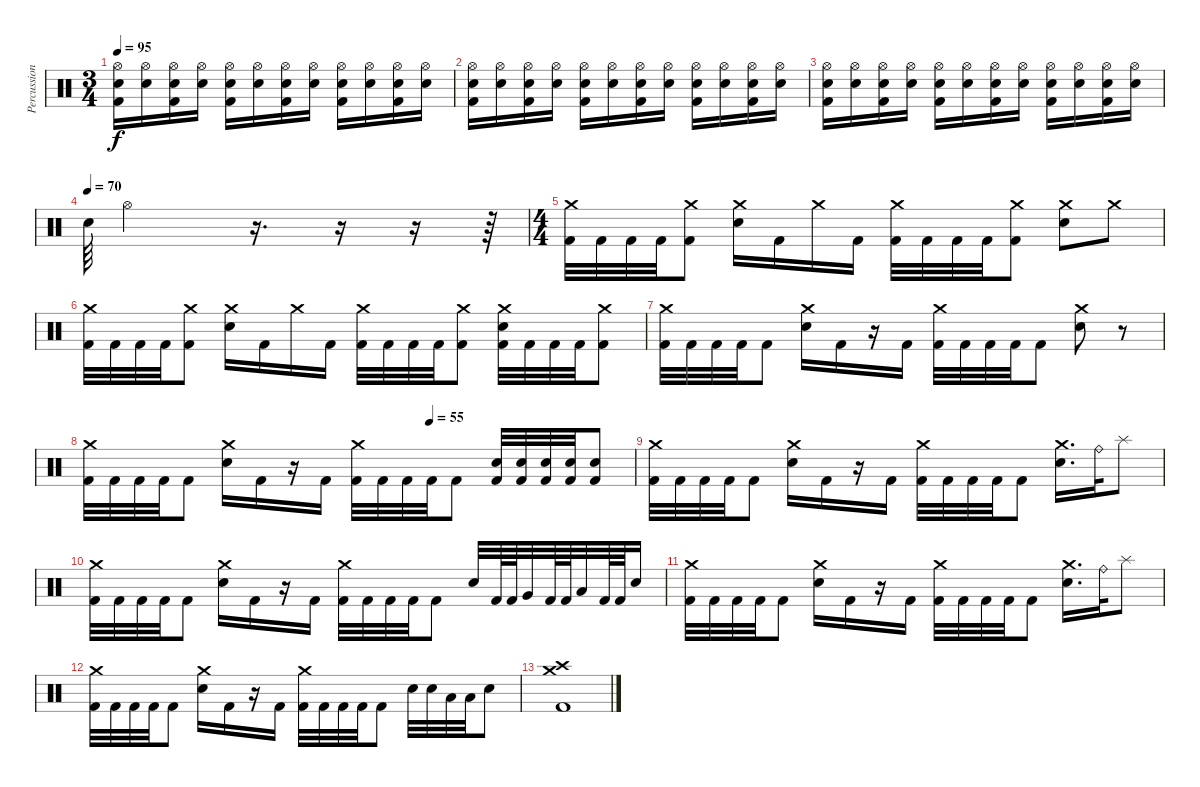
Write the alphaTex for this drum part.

\track ("Percussion" "Percussion") {instrument percussion}
\staff {score}
\articulation defaults
\ts (3 4)
\tempo 95
\clef neutral
\ks c
("Hi-Hat (open)" "Electric Snare (hit)" "Kick (hit) 2").16{dy f} ("Hi-Hat (open)" "Electric Snare (hit)").16 ("Hi-Hat (open)" "Electric Snare (hit)" "Kick (hit) 2").16 ("Hi-Hat (open)" "Electric Snare (hit)").16 ("Hi-Hat (open)" "Electric Snare (hit)" "Kick (hit) 2").16 ("Hi-Hat (open)" "Electric Snare (hit)").16 ("Hi-Hat (open)" "Electric Snare (hit)" "Kick (hit) 2").16 ("Hi-Hat (open)" "Electric Snare (hit)").16 ("Hi-Hat (open)" "Electric Snare (hit)" "Kick (hit) 2").16 ("Hi-Hat (open)" "Electric Snare (hit)").16 ("Hi-Hat (open)" "Electric Snare (hit)" "Kick (hit) 2").16 ("Hi-Hat (open)" "Electric Snare (hit)").16 |
("Hi-Hat (open)" "Electric Snare (hit)" "Kick (hit) 2").16 ("Hi-Hat (open)" "Electric Snare (hit)").16 ("Hi-Hat (open)" "Electric Snare (hit)" "Kick (hit) 2").16 ("Hi-Hat (open)" "Electric Snare (hit)").16 ("Hi-Hat (open)" "Electric Snare (hit)" "Kick (hit) 2").16 ("Hi-Hat (open)" "Electric Snare (hit)").16 ("Hi-Hat (open)" "Electric Snare (hit)" "Kick (hit) 2").16 ("Hi-Hat (open)" "Electric Snare (hit)").16 ("Hi-Hat (open)" "Electric Snare (hit)" "Kick (hit) 2").16 ("Hi-Hat (open)" "Electric Snare (hit)").16 ("Hi-Hat (open)" "Electric Snare (hit)" "Kick (hit) 2").16 ("Hi-Hat (open)" "Electric Snare (hit)").16 |
("Hi-Hat (open)" "Electric Snare (hit)" "Kick (hit) 2").16 ("Hi-Hat (open)" "Electric Snare (hit)").16 ("Hi-Hat (open)" "Electric Snare (hit)" "Kick (hit) 2").16 ("Hi-Hat (open)" "Electric Snare (hit)").16 ("Hi-Hat (open)" "Electric Snare (hit)" "Kick (hit) 2").16 ("Hi-Hat (open)" "Electric Snare (hit)").16 ("Hi-Hat (open)" "Electric Snare (hit)" "Kick (hit) 2").16 ("Hi-Hat (open)" "Electric Snare (hit)").16 ("Hi-Hat (open)" "Electric Snare (hit)" "Kick (hit) 2").16 ("Hi-Hat (open)" "Electric Snare (hit)").16 ("Hi-Hat (open)" "Electric Snare (hit)" "Kick (hit) 2").16 ("Hi-Hat (open)" "Electric Snare (hit)").16 |
\tempo (70)
"Electric Snare (hit)".64 "Hi-Hat (open)".2 r.16{d} r.16 r.16 r.64 |
\ts (4 4)
("Crash medium (hit)" "Kick (hit) 2").32 "Kick (hit) 2".32 "Kick (hit) 2".32 "Kick (hit) 2".32 ("Crash medium (hit)" "Kick (hit) 2").8 ("Crash medium (hit)" "Electric Snare (hit)").16 "Kick (hit) 2".16 "Crash medium (hit)".16 "Kick (hit) 2".16 ("Crash medium (hit)" "Kick (hit) 2").32 "Kick (hit) 2".32 "Kick (hit) 2".32 "Kick (hit) 2".32 ("Crash medium (hit)" "Kick (hit) 2").8 ("Crash medium (hit)" "Electric Snare (hit)").8 "Crash medium (hit)".8 |
("Crash medium (hit)" "Kick (hit) 2").32 "Kick (hit) 2".32 "Kick (hit) 2".32 "Kick (hit) 2".32 ("Crash medium (hit)" "Kick (hit) 2").8 ("Crash medium (hit)" "Electric Snare (hit)").16 "Kick (hit) 2".16 "Crash medium (hit)".16 "Kick (hit) 2".16 ("Crash medium (hit)" "Kick (hit) 2").32 "Kick (hit) 2".32 "Kick (hit) 2".32 "Kick (hit) 2".32 ("Crash medium (hit)" "Kick (hit) 2").8 ("Crash medium (hit)" "Electric Snare (hit)" "Kick (hit) 2").32 "Kick (hit) 2".32 "Kick (hit) 2".32 "Kick (hit) 2".32 ("Crash medium (hit)" "Kick (hit) 2").8 |
("Crash medium (hit)" "Kick (hit) 2").32 "Kick (hit) 2".32 "Kick (hit) 2".32 "Kick (hit) 2".32 "Kick (hit) 2".8 ("Crash medium (hit)" "Electric Snare (hit)").16 "Kick (hit) 2".16 r.16 "Kick (hit) 2".16 ("Crash medium (hit)" "Kick (hit) 2").32 "Kick (hit) 2".32 "Kick (hit) 2".32 "Kick (hit) 2".32 "Kick (hit) 2".8 ("Crash medium (hit)" "Electric Snare (hit)").8 r.8 |
\tempo (55 0.625)
("Crash medium (hit)" "Kick (hit) 2").32 "Kick (hit) 2".32 "Kick (hit) 2".32 "Kick (hit) 2".32 "Kick (hit) 2".8 ("Crash medium (hit)" "Electric Snare (hit)").16 "Kick (hit) 2".16 r.16 "Kick (hit) 2".16 ("Crash medium (hit)" "Kick (hit) 2").32 "Kick (hit) 2".32 "Kick (hit) 2".32 "Kick (hit) 2".32 "Kick (hit) 2".8 ("Electric Snare (hit)" "Kick (hit) 2").32 ("Electric Snare (hit)" "Kick (hit) 2").32 ("Electric Snare (hit)" "Kick (hit) 2").32 ("Electric Snare (hit)" "Kick (hit) 2").32 ("Electric Snare (hit)" "Kick (hit) 2").8 |
("Crash medium (hit)" "Kick (hit) 2").32 "Kick (hit) 2".32 "Kick (hit) 2".32 "Kick (hit) 2".32 "Kick (hit) 2".8 ("Crash medium (hit)" "Electric Snare (hit)").16 "Kick (hit) 2".16 r.16 "Kick (hit) 2".16 ("Crash medium (hit)" "Kick (hit) 2").32 "Kick (hit) 2".32 "Kick (hit) 2".32 "Kick (hit) 2".32 "Kick (hit) 2".8 ("Crash medium (hit)" "Electric Snare (hit)").16{d} "Ride (bell)".32 "Splash (hit)".8 |
("Crash medium (hit)" "Kick (hit) 2").32 "Kick (hit) 2".32 "Kick (hit) 2".32 "Kick (hit) 2".32 "Kick (hit) 2".8 ("Crash medium (hit)" "Electric Snare (hit)").16 "Kick (hit) 2".16 r.16 "Kick (hit) 2".16 ("Crash medium (hit)" "Kick (hit) 2").32 "Kick (hit) 2".32 "Kick (hit) 2".32 "Kick (hit) 2".32 "Kick (hit) 2".8 "Electric Snare (hit)".32 "Kick (hit) 2".64 "Kick (hit) 2".64 "Very Low Tom (hit)".32 "Kick (hit) 2".64 "Kick (hit) 2".64 "Low Floor Tom (hit)".32 "Kick (hit) 2".64 "Kick (hit) 2".64 "Electric Snare (hit)".16 |
("Crash medium (hit)" "Kick (hit) 2").32 "Kick (hit) 2".32 "Kick (hit) 2".32 "Kick (hit) 2".32 "Kick (hit) 2".8 ("Crash medium (hit)" "Electric Snare (hit)").16 "Kick (hit) 2".16 r.16 "Kick (hit) 2".16 ("Crash medium (hit)" "Kick (hit) 2").32 "Kick (hit) 2".32 "Kick (hit) 2".32 "Kick (hit) 2".32 "Kick (hit) 2".8 ("Crash medium (hit)" "Electric Snare (hit)").16{d} "Ride (bell)".32 "Splash (hit)".8 |
("Crash medium (hit)" "Kick (hit) 2").32 "Kick (hit) 2".32 "Kick (hit) 2".32 "Kick (hit) 2".32 "Kick (hit) 2".8 ("Crash medium (hit)" "Electric Snare (hit)").16 "Kick (hit) 2".16 r.16 "Kick (hit) 2".16 ("Crash medium (hit)" "Kick (hit) 2").32 "Kick (hit) 2".32 "Kick (hit) 2".32 "Kick (hit) 2".32 "Kick (hit) 2".8 "Electric Snare (hit)".32 "Electric Snare (hit)".32 "Low Floor Tom (hit)".32 "Low Floor Tom (hit)".32 "Electric Snare (hit)".8 |
("Crash high (hit)" "Crash medium (hit)" "Kick (hit) 2").1
